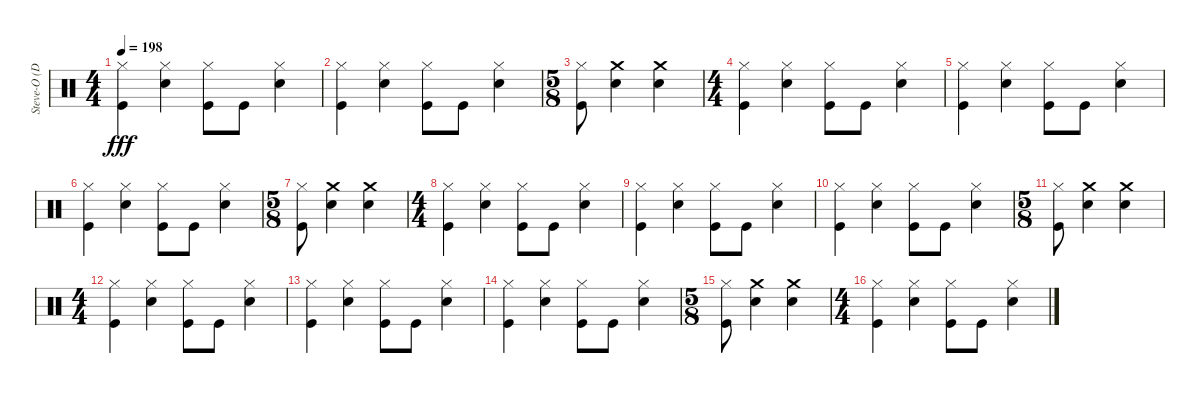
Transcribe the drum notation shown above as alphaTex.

\track ("Steve-O (Drums)" "Steve-O (D") {instrument percussion}
\staff {score}
\articulation defaults
\ts (4 4)
\tempo 198
\clef neutral
\ks c
("Hi-Hat (closed)" "Kick (hit)").4{dy fff} ("Snare (hit) 2" "Hi-Hat (closed)").4 ("Kick (hit)" "Hi-Hat (closed)").8 "Kick (hit)".8 ("Snare (hit) 2" "Hi-Hat (closed)").4 |
("Kick (hit)" "Hi-Hat (closed)").4 ("Snare (hit) 2" "Hi-Hat (closed)").4 ("Kick (hit)" "Hi-Hat (closed)").8 "Kick (hit)".8 ("Snare (hit) 2" "Hi-Hat (closed)").4 |
\ts (5 8)
("Hi-Hat (closed)" "Kick (hit)").8 ("Snare (hit) 2" "Crash medium (hit)").4 ("Crash medium (hit)" "Snare (hit) 2").4 |
\ts (4 4)
("Hi-Hat (closed)" "Kick (hit)").4 ("Snare (hit) 2" "Hi-Hat (closed)").4 ("Kick (hit)" "Hi-Hat (closed)").8 "Kick (hit)".8 ("Snare (hit) 2" "Hi-Hat (closed)").4 |
("Kick (hit)" "Hi-Hat (closed)").4 ("Snare (hit) 2" "Hi-Hat (closed)").4 ("Hi-Hat (closed)" "Kick (hit)").8 "Kick (hit)".8 ("Snare (hit) 2" "Hi-Hat (closed)").4 |
("Hi-Hat (closed)" "Kick (hit)").4 ("Snare (hit) 2" "Hi-Hat (closed)").4 ("Kick (hit)" "Hi-Hat (closed)").8 "Kick (hit)".8 ("Hi-Hat (closed)" "Snare (hit) 2").4 |
\ts (5 8)
("Hi-Hat (closed)" "Kick (hit)").8 ("Snare (hit) 2" "Crash medium (hit)").4 ("Snare (hit) 2" "Crash medium (hit)").4 |
\ts (4 4)
("Hi-Hat (closed)" "Kick (hit)").4 ("Snare (hit) 2" "Hi-Hat (closed)").4 ("Kick (hit)" "Hi-Hat (closed)").8 "Kick (hit)".8 ("Snare (hit) 2" "Hi-Hat (closed)").4 |
("Hi-Hat (closed)" "Kick (hit)").4 ("Snare (hit) 2" "Hi-Hat (closed)").4 ("Kick (hit)" "Hi-Hat (closed)").8 "Kick (hit)".8 ("Snare (hit) 2" "Hi-Hat (closed)").4 |
("Kick (hit)" "Hi-Hat (closed)").4 ("Snare (hit) 2" "Hi-Hat (closed)").4 ("Kick (hit)" "Hi-Hat (closed)").8 "Kick (hit)".8 ("Snare (hit) 2" "Hi-Hat (closed)").4 |
\ts (5 8)
("Hi-Hat (closed)" "Kick (hit)").8 ("Snare (hit) 2" "Crash medium (hit)").4 ("Crash medium (hit)" "Snare (hit) 2").4 |
\ts (4 4)
("Kick (hit)" "Hi-Hat (closed)").4 ("Snare (hit) 2" "Hi-Hat (closed)").4 ("Kick (hit)" "Hi-Hat (closed)").8 "Kick (hit)".8 ("Snare (hit) 2" "Hi-Hat (closed)").4 |
("Hi-Hat (closed)" "Kick (hit)").4 ("Snare (hit) 2" "Hi-Hat (closed)").4 ("Hi-Hat (closed)" "Kick (hit)").8 "Kick (hit)".8 ("Snare (hit) 2" "Hi-Hat (closed)").4 |
("Hi-Hat (closed)" "Kick (hit)").4 ("Snare (hit) 2" "Hi-Hat (closed)").4 ("Kick (hit)" "Hi-Hat (closed)").8 "Kick (hit)".8 ("Hi-Hat (closed)" "Snare (hit) 2").4 |
\ts (5 8)
("Hi-Hat (closed)" "Kick (hit)").8 ("Snare (hit) 2" "Crash medium (hit)").4 ("Snare (hit) 2" "Crash medium (hit)").4 |
\ts (4 4)
("Hi-Hat (closed)" "Kick (hit)").4 ("Snare (hit) 2" "Hi-Hat (closed)").4 ("Kick (hit)" "Hi-Hat (closed)").8 "Kick (hit)".8 ("Snare (hit) 2" "Hi-Hat (closed)").4
